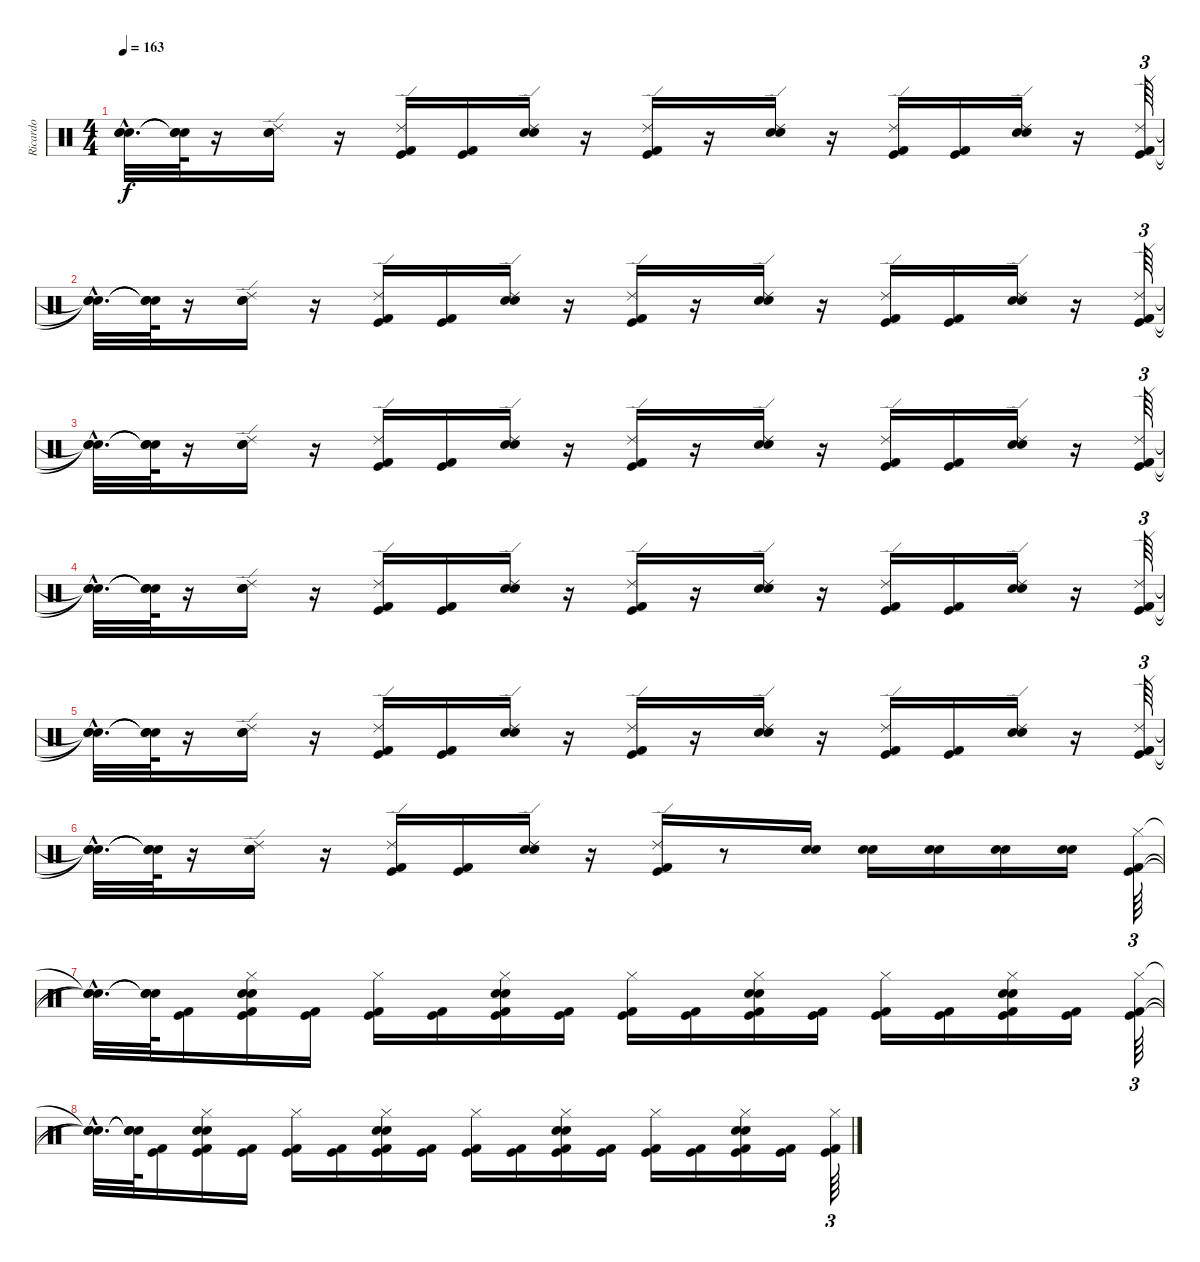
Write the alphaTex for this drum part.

\track ("Ricardo" "Ricardo") {instrument percussion}
\staff {score}
\articulation defaults
\ts (4 4)
\tempo 163
\clef neutral
\ks c
("Snare (hit)"{hac t} "Snare (hit)"{hac t} "Snare (hit)"{hac t}).32{d dy f} ("Snare (hit)"{t} "Snare (hit)"{t} "Snare (hit)"{t}).64 r.16 ("Ride (edge) 2" "Electric Snare (hit)" "Snare (hit) 2").16 r.16 ("Ride (edge) 2" "Kick (hit)" "Kick (hit) 2").16 ("Kick (hit)" "Kick (hit) 2").16 ("Ride (edge) 2" "Electric Snare (hit)" "Snare (hit) 2").16 r.16 ("Ride (edge) 2" "Kick (hit)" "Kick (hit) 2").16 r.16 ("Ride (edge) 2" "Electric Snare (hit)" "Snare (hit) 2").16 r.16 ("Ride (edge) 2" "Kick (hit) 2" "Kick (hit)").16 ("Kick (hit) 2" "Kick (hit)").16 ("Ride (edge) 2" "Electric Snare (hit)" "Snare (hit) 2").16 r.16 ("Ride (edge) 2" "Kick (hit) 2" "Kick (hit)").64{tu (3 2)} |
("Snare (hit)"{hac t} "Snare (hit)"{hac t} "Snare (hit)"{hac t}).32{d} ("Snare (hit)"{t} "Snare (hit)"{t} "Snare (hit)"{t}).64 r.16 ("Ride (edge) 2" "Electric Snare (hit)" "Snare (hit) 2").16 r.16 ("Ride (edge) 2" "Kick (hit)" "Kick (hit) 2").16 ("Kick (hit)" "Kick (hit) 2").16 ("Ride (edge) 2" "Electric Snare (hit)" "Snare (hit) 2").16 r.16 ("Ride (edge) 2" "Kick (hit)" "Kick (hit) 2").16 r.16 ("Ride (edge) 2" "Electric Snare (hit)" "Snare (hit) 2").16 r.16 ("Ride (edge) 2" "Kick (hit) 2" "Kick (hit)").16 ("Kick (hit) 2" "Kick (hit)").16 ("Ride (edge) 2" "Electric Snare (hit)" "Snare (hit) 2").16 r.16 ("Ride (edge) 2" "Kick (hit) 2" "Kick (hit)").64{tu (3 2)} |
("Snare (hit)"{hac t} "Snare (hit)"{hac t} "Snare (hit)"{hac t}).32{d} ("Snare (hit)"{t} "Snare (hit)"{t} "Snare (hit)"{t}).64 r.16 ("Ride (edge) 2" "Electric Snare (hit)" "Snare (hit) 2").16 r.16 ("Ride (edge) 2" "Kick (hit)" "Kick (hit) 2").16 ("Kick (hit)" "Kick (hit) 2").16 ("Ride (edge) 2" "Electric Snare (hit)" "Snare (hit) 2").16 r.16 ("Ride (edge) 2" "Kick (hit)" "Kick (hit) 2").16 r.16 ("Ride (edge) 2" "Electric Snare (hit)" "Snare (hit) 2").16 r.16 ("Ride (edge) 2" "Kick (hit) 2" "Kick (hit)").16 ("Kick (hit) 2" "Kick (hit)").16 ("Ride (edge) 2" "Electric Snare (hit)" "Snare (hit) 2").16 r.16 ("Ride (edge) 2" "Kick (hit) 2" "Kick (hit)").64{tu (3 2)} |
("Snare (hit)"{hac t} "Snare (hit)"{hac t} "Snare (hit)"{hac t}).32{d} ("Snare (hit)"{t} "Snare (hit)"{t} "Snare (hit)"{t}).64 r.16 ("Ride (edge) 2" "Electric Snare (hit)" "Snare (hit) 2").16 r.16 ("Ride (edge) 2" "Kick (hit)" "Kick (hit) 2").16 ("Kick (hit)" "Kick (hit) 2").16 ("Ride (edge) 2" "Electric Snare (hit)" "Snare (hit) 2").16 r.16 ("Ride (edge) 2" "Kick (hit)" "Kick (hit) 2").16 r.16 ("Ride (edge) 2" "Electric Snare (hit)" "Snare (hit) 2").16 r.16 ("Ride (edge) 2" "Kick (hit) 2" "Kick (hit)").16 ("Kick (hit) 2" "Kick (hit)").16 ("Ride (edge) 2" "Electric Snare (hit)" "Snare (hit) 2").16 r.16 ("Ride (edge) 2" "Kick (hit) 2" "Kick (hit)").64{tu (3 2)} |
("Snare (hit)"{hac t} "Snare (hit)"{hac t} "Snare (hit)"{hac t}).32{d} ("Snare (hit)"{t} "Snare (hit)"{t} "Snare (hit)"{t}).64 r.16 ("Ride (edge) 2" "Electric Snare (hit)" "Snare (hit) 2").16 r.16 ("Ride (edge) 2" "Kick (hit)" "Kick (hit) 2").16 ("Kick (hit)" "Kick (hit) 2").16 ("Ride (edge) 2" "Electric Snare (hit)" "Snare (hit) 2").16 r.16 ("Ride (edge) 2" "Kick (hit)" "Kick (hit) 2").16 r.16 ("Ride (edge) 2" "Electric Snare (hit)" "Snare (hit) 2").16 r.16 ("Ride (edge) 2" "Kick (hit) 2" "Kick (hit)").16 ("Kick (hit) 2" "Kick (hit)").16 ("Ride (edge) 2" "Electric Snare (hit)" "Snare (hit) 2").16 r.16 ("Ride (edge) 2" "Kick (hit) 2" "Kick (hit)").64{tu (3 2)} |
("Snare (hit)"{hac t} "Snare (hit)"{hac t} "Snare (hit)"{hac t}).32{d} ("Snare (hit)"{t} "Snare (hit)"{t} "Snare (hit)"{t}).64 r.16 ("Ride (edge) 2" "Electric Snare (hit)" "Snare (hit) 2").16 r.16 ("Ride (edge) 2" "Kick (hit)" "Kick (hit) 2").16 ("Kick (hit)" "Kick (hit) 2").16 ("Ride (edge) 2" "Electric Snare (hit)" "Snare (hit) 2").16 r.16 ("Ride (edge) 2" "Kick (hit)" "Kick (hit) 2").16 r.8 ("Electric Snare (hit)" "Snare (hit) 2").16 ("Snare (hit) 2" "Electric Snare (hit)").16 ("Electric Snare (hit)" "Snare (hit) 2").16 ("Electric Snare (hit)" "Snare (hit) 2").16 ("Electric Snare (hit)" "Snare (hit) 2").16 ("Hi-Hat (closed)" "Kick (hit) 2" "Kick (hit)").64{tu (3 2)} |
("Snare (hit)"{hac t} "Snare (hit)"{hac t} "Snare (hit)"{hac t}).32{d} ("Snare (hit)"{t} "Snare (hit)"{t} "Snare (hit)"{t}).64 ("Kick (hit) 2" "Kick (hit)").16 ("Electric Snare (hit)" "Snare (hit) 2" "Hi-Hat (closed)" "Kick (hit) 2" "Kick (hit)").16 ("Kick (hit) 2" "Kick (hit)").16 ("Hi-Hat (closed)" "Kick (hit) 2" "Kick (hit)").16 ("Kick (hit) 2" "Kick (hit)").16 ("Electric Snare (hit)" "Snare (hit) 2" "Hi-Hat (closed)" "Kick (hit) 2" "Kick (hit)").16 ("Kick (hit) 2" "Kick (hit)").16 ("Hi-Hat (closed)" "Kick (hit) 2" "Kick (hit)").16 ("Kick (hit) 2" "Kick (hit)").16 ("Electric Snare (hit)" "Snare (hit) 2" "Hi-Hat (closed)" "Kick (hit) 2" "Kick (hit)").16 ("Kick (hit) 2" "Kick (hit)").16 ("Hi-Hat (closed)" "Kick (hit) 2" "Kick (hit)").16 ("Kick (hit) 2" "Kick (hit)").16 ("Electric Snare (hit)" "Snare (hit) 2" "Hi-Hat (closed)" "Kick (hit) 2" "Kick (hit)").16 ("Kick (hit) 2" "Kick (hit)").16 ("Hi-Hat (closed)" "Kick (hit) 2" "Kick (hit)").64{tu (3 2)} |
("Snare (hit)"{hac t} "Snare (hit)"{hac t} "Snare (hit)"{hac t}).32{d} ("Snare (hit)"{t} "Snare (hit)"{t} "Snare (hit)"{t}).64 ("Kick (hit) 2" "Kick (hit)").16 ("Electric Snare (hit)" "Snare (hit) 2" "Hi-Hat (closed)" "Kick (hit) 2" "Kick (hit)").16 ("Kick (hit) 2" "Kick (hit)").16 ("Hi-Hat (closed)" "Kick (hit) 2" "Kick (hit)").16 ("Kick (hit) 2" "Kick (hit)").16 ("Electric Snare (hit)" "Snare (hit) 2" "Hi-Hat (closed)" "Kick (hit) 2" "Kick (hit)").16 ("Kick (hit) 2" "Kick (hit)").16 ("Hi-Hat (closed)" "Kick (hit) 2" "Kick (hit)").16 ("Kick (hit) 2" "Kick (hit)").16 ("Electric Snare (hit)" "Snare (hit) 2" "Hi-Hat (closed)" "Kick (hit) 2" "Kick (hit)").16 ("Kick (hit) 2" "Kick (hit)").16 ("Hi-Hat (closed)" "Kick (hit) 2" "Kick (hit)").16 ("Kick (hit) 2" "Kick (hit)").16 ("Electric Snare (hit)" "Snare (hit) 2" "Hi-Hat (closed)" "Kick (hit) 2" "Kick (hit)").16 ("Kick (hit) 2" "Kick (hit)").16 ("Hi-Hat (closed)" "Kick (hit) 2" "Kick (hit)").64{tu (3 2)}
